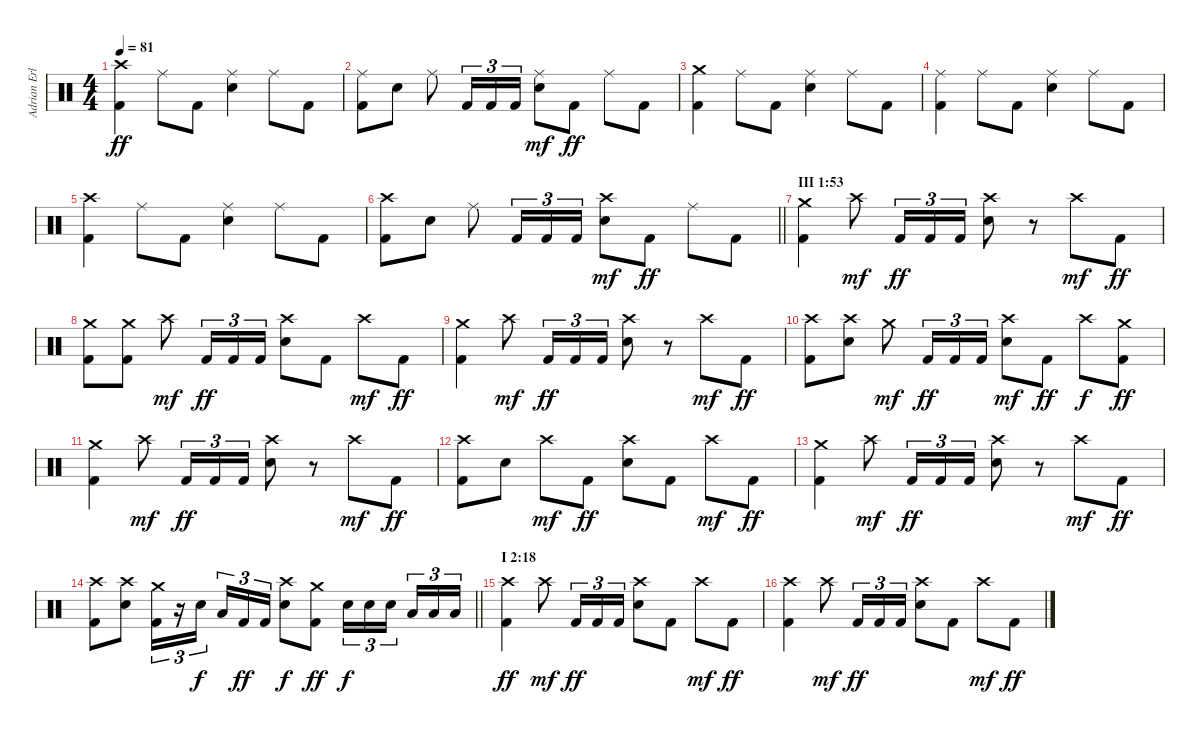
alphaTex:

\track ("Adrian Erlandsson (drums)" "Adrian Erl") {instrument percussion}
\staff {score}
\articulation defaults
\ts (4 4)
\tempo 81
\clef neutral
\ks c
("Crash high (hit)" "Kick (hit) 2").4{dy ff} "Ride (middle)".8 "Kick (hit) 2".8 ("Ride (middle)" "Electric Snare (hit)").4 "Ride (middle)".8 "Kick (hit) 2".8 |
("Ride (middle)" "Kick (hit) 2").8 "Electric Snare (hit)".8 "Ride (middle)".8 "Kick (hit) 2".16{tu (3 2)} "Kick (hit) 2".16{tu (3 2)} "Kick (hit) 2".16{tu (3 2)} ("Ride (middle)" "Electric Snare (hit)").8{dy mf} "Kick (hit) 2".8{dy ff} "Ride (middle)".8 "Kick (hit) 2".8 |
("Crash medium (hit)" "Kick (hit) 2").4 "Ride (middle)".8 "Kick (hit) 2".8 ("Ride (middle)" "Electric Snare (hit)").4 "Ride (middle)".8 "Kick (hit) 2".8 |
("Ride (middle)" "Kick (hit) 2").4 "Ride (middle)".8 "Kick (hit) 2".8 ("Ride (middle)" "Electric Snare (hit)").4 "Ride (middle)".8 "Kick (hit) 2".8 |
("Crash high (hit)" "Kick (hit) 2").4 "Ride (middle)".8 "Kick (hit) 2".8 ("Ride (middle)" "Electric Snare (hit)").4 "Ride (middle)".8 "Kick (hit) 2".8 |
\barLineRight lightlight
("Crash high (hit)" "Kick (hit) 2").8 "Electric Snare (hit)".8 "Ride (middle)".8 "Kick (hit) 2".16{tu (3 2)} "Kick (hit) 2".16{tu (3 2)} "Kick (hit) 2".16{tu (3 2)} ("Crash high (hit)" "Electric Snare (hit)").8{dy mf} "Kick (hit) 2".8{dy ff} "Ride (middle)".8 "Kick (hit) 2".8 |
\section ("" "III 1:53")
("Crash medium (hit)" "Kick (hit) 2").4 "Crash high (hit)".8{dy mf} "Kick (hit) 2".16{tu (3 2) dy ff} "Kick (hit) 2".16{tu (3 2)} "Kick (hit) 2".16{tu (3 2)} ("Crash high (hit)" "Electric Snare (hit)").8 r.8 "Crash high (hit)".8{dy mf} "Kick (hit) 2".8{dy ff} |
("Crash medium (hit)" "Kick (hit) 2").8 ("Crash medium (hit)" "Kick (hit) 2").8 "Crash high (hit)".8{dy mf} "Kick (hit) 2".16{tu (3 2) dy ff} "Kick (hit) 2".16{tu (3 2)} "Kick (hit) 2".16{tu (3 2)} ("Crash high (hit)" "Electric Snare (hit)").8 "Kick (hit) 2".8 "Crash high (hit)".8{dy mf} "Kick (hit) 2".8{dy ff} |
("Crash medium (hit)" "Kick (hit) 2").4 "Crash high (hit)".8{dy mf} "Kick (hit) 2".16{tu (3 2) dy ff} "Kick (hit) 2".16{tu (3 2)} "Kick (hit) 2".16{tu (3 2)} ("Crash high (hit)" "Electric Snare (hit)").8 r.8 "Crash high (hit)".8{dy mf} "Kick (hit) 2".8{dy ff} |
("Crash high (hit)" "Kick (hit) 2").8 ("Crash high (hit)" "Electric Snare (hit)").8 "Crash medium (hit)".8{dy mf} "Kick (hit) 2".16{tu (3 2) dy ff} "Kick (hit) 2".16{tu (3 2)} "Kick (hit) 2".16{tu (3 2)} ("Crash high (hit)" "Electric Snare (hit)").8{dy mf} "Kick (hit) 2".8{dy ff} "Crash high (hit)".8{dy f} ("Crash medium (hit)" "Kick (hit) 2").8{dy ff} |
("Crash medium (hit)" "Kick (hit) 2").4 "Crash high (hit)".8{dy mf} "Kick (hit) 2".16{tu (3 2) dy ff} "Kick (hit) 2".16{tu (3 2)} "Kick (hit) 2".16{tu (3 2)} ("Crash high (hit)" "Electric Snare (hit)").8 r.8 "Crash high (hit)".8{dy mf} "Kick (hit) 2".8{dy ff} |
("Crash high (hit)" "Kick (hit) 2").8 "Electric Snare (hit)".8 "Crash high (hit)".8{dy mf} "Kick (hit) 2".8{dy ff} ("Crash high (hit)" "Electric Snare (hit)").8 "Kick (hit) 2".8 "Crash high (hit)".8{dy mf} "Kick (hit) 2".8{dy ff} |
("Crash medium (hit)" "Kick (hit) 2").4 "Crash high (hit)".8{dy mf} "Kick (hit) 2".16{tu (3 2) dy ff} "Kick (hit) 2".16{tu (3 2)} "Kick (hit) 2".16{tu (3 2)} ("Crash high (hit)" "Electric Snare (hit)").8 r.8 "Crash high (hit)".8{dy mf} "Kick (hit) 2".8{dy ff} |
\barLineRight lightlight
("Crash high (hit)" "Kick (hit) 2").8 ("Crash high (hit)" "Electric Snare (hit)").8 ("Crash medium (hit)" "Kick (hit) 2").16{tu (3 2)} r.16{tu (3 2)} "Electric Snare (hit)".16{tu (3 2) dy f beam splitsecondary} "Low Tom (hit)".16{tu (3 2)} "Kick (hit) 2".16{tu (3 2) dy ff} "Kick (hit) 2".16{tu (3 2)} ("Crash high (hit)" "Electric Snare (hit)").8{dy f} ("Crash medium (hit)" "Kick (hit) 2").8{dy ff} "Electric Snare (hit)".16{tu (3 2) dy f} "Electric Snare (hit)".16{tu (3 2)} "Electric Snare (hit)".16{tu (3 2) beam splitsecondary} "Low Tom (hit)".16{tu (3 2)} "Low Tom (hit)".16{tu (3 2)} "Low Tom (hit)".16{tu (3 2)} |
\section ("" "I 2:18")
("Crash high (hit)" "Kick (hit) 2").4{dy ff} "Crash high (hit)".8{dy mf} "Kick (hit) 2".16{tu (3 2) dy ff} "Kick (hit) 2".16{tu (3 2)} "Kick (hit) 2".16{tu (3 2)} ("Crash high (hit)" "Electric Snare (hit)").8 "Kick (hit) 2".8 "Crash high (hit)".8{dy mf} "Kick (hit) 2".8{dy ff} |
("Crash high (hit)" "Kick (hit) 2").4 "Crash high (hit)".8{dy mf} "Kick (hit) 2".16{tu (3 2) dy ff} "Kick (hit) 2".16{tu (3 2)} "Kick (hit) 2".16{tu (3 2)} ("Crash high (hit)" "Electric Snare (hit)").8 "Kick (hit) 2".8 "Crash high (hit)".8{dy mf} "Kick (hit) 2".8{dy ff}
